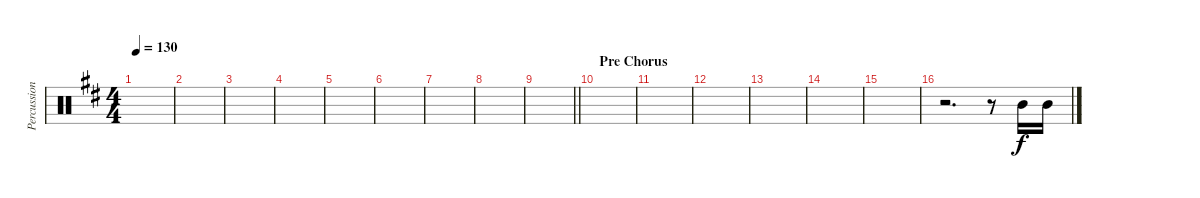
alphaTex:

\track ("Percussioni" "Percussion") {instrument percussion}
\staff {score}
\articulation defaults
\ts (4 4)
\tempo 130
\clef neutral
\ks d
|
|
|
|
|
|
|
|
\barLineRight lightlight
|
\section ("" "Pre Chorus")
|
|
|
|
|
|
r.2{d} r.8 "Mid Tom (hit)".16 "Mid Tom (hit)".16
